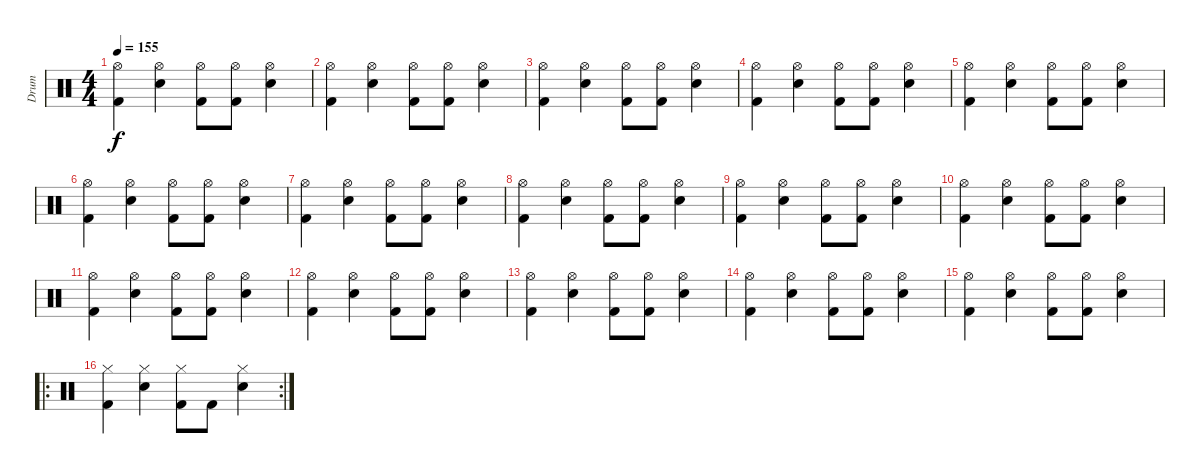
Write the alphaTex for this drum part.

\track ("Drum" "Drum") {instrument percussion}
\staff {score}
\articulation defaults
\ts (4 4)
\tempo 155
\clef neutral
\ks c
("Hi-Hat (open)" "Kick (hit) 2").4{dy f} ("Hi-Hat (open)" "Snare (hit) 2").4 ("Hi-Hat (open)" "Kick (hit) 2").8 ("Hi-Hat (open)" "Kick (hit) 2").8 ("Snare (hit) 2" "Hi-Hat (open)").4 |
("Hi-Hat (open)" "Kick (hit) 2").4 ("Hi-Hat (open)" "Snare (hit) 2").4 ("Hi-Hat (open)" "Kick (hit) 2").8 ("Hi-Hat (open)" "Kick (hit) 2").8 ("Snare (hit) 2" "Hi-Hat (open)").4 |
("Hi-Hat (open)" "Kick (hit) 2").4 ("Hi-Hat (open)" "Snare (hit) 2").4 ("Hi-Hat (open)" "Kick (hit) 2").8 ("Hi-Hat (open)" "Kick (hit) 2").8 ("Snare (hit) 2" "Hi-Hat (open)").4 |
("Hi-Hat (open)" "Kick (hit) 2").4 ("Hi-Hat (open)" "Snare (hit) 2").4 ("Hi-Hat (open)" "Kick (hit) 2").8 ("Hi-Hat (open)" "Kick (hit) 2").8 ("Snare (hit) 2" "Hi-Hat (open)").4 |
("Hi-Hat (open)" "Kick (hit) 2").4 ("Hi-Hat (open)" "Snare (hit) 2").4 ("Hi-Hat (open)" "Kick (hit) 2").8 ("Hi-Hat (open)" "Kick (hit) 2").8 ("Snare (hit) 2" "Hi-Hat (open)").4 |
("Hi-Hat (open)" "Kick (hit) 2").4 ("Hi-Hat (open)" "Snare (hit) 2").4 ("Hi-Hat (open)" "Kick (hit) 2").8 ("Hi-Hat (open)" "Kick (hit) 2").8 ("Snare (hit) 2" "Hi-Hat (open)").4 |
("Hi-Hat (open)" "Kick (hit) 2").4 ("Hi-Hat (open)" "Snare (hit) 2").4 ("Hi-Hat (open)" "Kick (hit) 2").8 ("Hi-Hat (open)" "Kick (hit) 2").8 ("Snare (hit) 2" "Hi-Hat (open)").4 |
("Hi-Hat (open)" "Kick (hit) 2").4 ("Hi-Hat (open)" "Snare (hit) 2").4 ("Hi-Hat (open)" "Kick (hit) 2").8 ("Hi-Hat (open)" "Kick (hit) 2").8 ("Snare (hit) 2" "Hi-Hat (open)").4 |
("Hi-Hat (open)" "Kick (hit) 2").4 ("Hi-Hat (open)" "Snare (hit) 2").4 ("Hi-Hat (open)" "Kick (hit) 2").8 ("Hi-Hat (open)" "Kick (hit) 2").8 ("Snare (hit) 2" "Hi-Hat (open)").4 |
("Hi-Hat (open)" "Kick (hit) 2").4 ("Hi-Hat (open)" "Snare (hit) 2").4 ("Hi-Hat (open)" "Kick (hit) 2").8 ("Hi-Hat (open)" "Kick (hit) 2").8 ("Snare (hit) 2" "Hi-Hat (open)").4 |
("Hi-Hat (open)" "Kick (hit) 2").4 ("Hi-Hat (open)" "Snare (hit) 2").4 ("Hi-Hat (open)" "Kick (hit) 2").8 ("Hi-Hat (open)" "Kick (hit) 2").8 ("Snare (hit) 2" "Hi-Hat (open)").4 |
("Hi-Hat (open)" "Kick (hit) 2").4 ("Hi-Hat (open)" "Snare (hit) 2").4 ("Hi-Hat (open)" "Kick (hit) 2").8 ("Hi-Hat (open)" "Kick (hit) 2").8 ("Snare (hit) 2" "Hi-Hat (open)").4 |
("Hi-Hat (open)" "Kick (hit) 2").4 ("Hi-Hat (open)" "Snare (hit) 2").4 ("Hi-Hat (open)" "Kick (hit) 2").8 ("Hi-Hat (open)" "Kick (hit) 2").8 ("Snare (hit) 2" "Hi-Hat (open)").4 |
("Hi-Hat (open)" "Kick (hit) 2").4 ("Hi-Hat (open)" "Snare (hit) 2").4 ("Hi-Hat (open)" "Kick (hit) 2").8 ("Hi-Hat (open)" "Kick (hit) 2").8 ("Snare (hit) 2" "Hi-Hat (open)").4 |
("Hi-Hat (open)" "Kick (hit) 2").4 ("Hi-Hat (open)" "Snare (hit) 2").4 ("Hi-Hat (open)" "Kick (hit) 2").8 ("Hi-Hat (open)" "Kick (hit) 2").8 ("Snare (hit) 2" "Hi-Hat (open)").4 |
\ro
\rc 2
("Hi-Hat (closed)" "Kick (hit) 2").4 ("Hi-Hat (closed)" "Snare (hit) 2").4 ("Hi-Hat (closed)" "Kick (hit) 2").8 "Kick (hit) 2".8 ("Snare (hit) 2" "Hi-Hat (closed)").4
